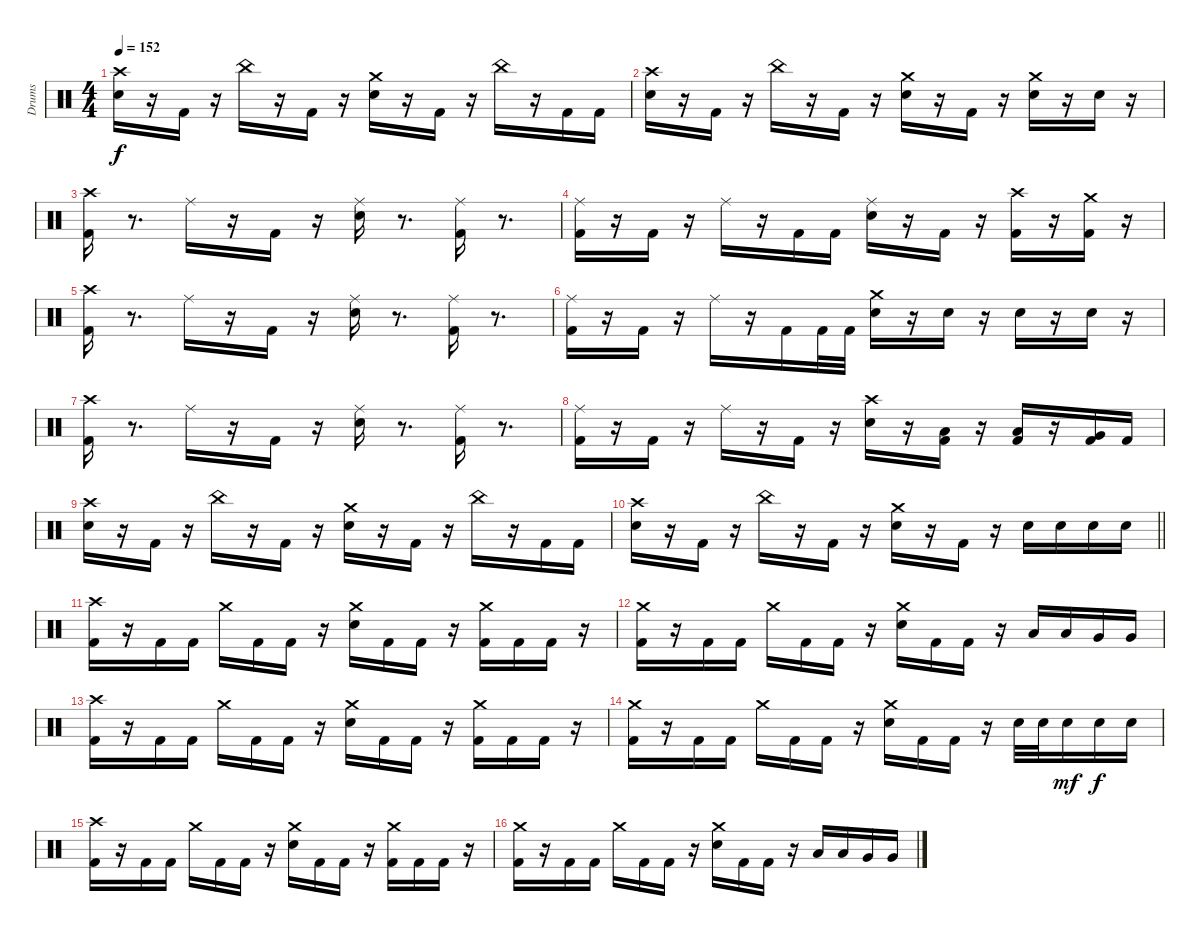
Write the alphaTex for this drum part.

\track ("Drums" "Drums") {instrument percussion}
\staff {score}
\articulation defaults
\ts (4 4)
\tempo 152
\clef neutral
\ks c
("Snare (hit) 2" "Crash high (hit)").16{dy f} r.16 "Kick (hit) 2".16 r.16 "China (hit)".16 r.16 "Kick (hit) 2".16 r.16 ("Snare (hit) 2" "Crash medium (hit)").16 r.16 "Kick (hit) 2".16 r.16 "China (hit)".16 r.16 "Kick (hit) 2".16 "Kick (hit) 2".16 |
("Snare (hit) 2" "Crash high (hit)").16 r.16 "Kick (hit) 2".16 r.16 "China (hit)".16 r.16 "Kick (hit) 2".16 r.16 ("Snare (hit) 2" "Crash medium (hit)").16 r.16 "Kick (hit) 2".16 r.16 ("Snare (hit) 2" "Crash medium (hit)").16 r.16 "Snare (hit) 2".16 r.16 |
("Kick (hit) 2" "Crash high (hit)").16 r.8{d} "Ride (middle)".16 r.16 "Kick (hit) 2".16 r.16 ("Snare (hit) 2" "Ride (middle)").16 r.8{d} ("Kick (hit) 2" "Ride (middle)").16 r.8{d} |
("Kick (hit) 2" "Ride (middle)").16 r.16 "Kick (hit) 2".16 r.16 "Ride (middle)".16 r.16 "Kick (hit) 2".16 "Kick (hit) 2".16 ("Snare (hit) 2" "Ride (middle)").16 r.16 "Kick (hit) 2".16 r.16 ("Kick (hit) 2" "Crash high (hit)").16 r.16 ("Kick (hit) 2" "Crash medium (hit)").16 r.16 |
("Kick (hit) 2" "Crash high (hit)").16 r.8{d} "Ride (middle)".16 r.16 "Kick (hit) 2".16 r.16 ("Snare (hit) 2" "Ride (middle)").16 r.8{d} ("Kick (hit) 2" "Ride (middle)").16 r.8{d} |
("Kick (hit) 2" "Ride (middle)").16 r.16 "Kick (hit) 2".16 r.16 "Ride (middle)".16 r.16 "Kick (hit) 2".16 "Kick (hit) 2".32 "Kick (hit) 2".32 ("Snare (hit) 2" "Crash medium (hit)").16 r.16 "Snare (hit) 2".16 r.16 "Snare (hit) 2".16 r.16 "Snare (hit) 2".16 r.16 |
("Kick (hit) 2" "Crash high (hit)").16 r.8{d} "Ride (middle)".16 r.16 "Kick (hit) 2".16 r.16 ("Snare (hit) 2" "Ride (middle)").16 r.8{d} ("Kick (hit) 2" "Ride (middle)").16 r.8{d} |
("Kick (hit) 2" "Ride (middle)").16 r.16 "Kick (hit) 2".16 r.16 "Ride (middle)".16 r.16 "Kick (hit) 2".16 r.16 ("Snare (hit) 2" "Crash high (hit)").16 r.16 ("Kick (hit) 2" "Low Tom (hit)").16 r.16 ("Kick (hit) 2" "Low Tom (hit)").16 r.16 ("Kick (hit) 2" "Very Low Tom (hit)").16 "Kick (hit) 2".16 |
("Snare (hit) 2" "Crash high (hit)").16 r.16 "Kick (hit) 2".16 r.16 "China (hit)".16 r.16 "Kick (hit) 2".16 r.16 ("Snare (hit) 2" "Crash medium (hit)").16 r.16 "Kick (hit) 2".16 r.16 "China (hit)".16 r.16 "Kick (hit) 2".16 "Kick (hit) 2".16 |
\barLineRight lightlight
("Snare (hit) 2" "Crash high (hit)").16 r.16 "Kick (hit) 2".16 r.16 "China (hit)".16 r.16 "Kick (hit) 2".16 r.16 ("Snare (hit) 2" "Crash medium (hit)").16 r.16 "Kick (hit) 2".16 r.16 "Snare (hit) 2".16 "Snare (hit) 2".16 "Snare (hit) 2".16 "Snare (hit) 2".16 |
\section ("" " ")
("Kick (hit) 2" "Crash high (hit)").16 r.16 "Kick (hit) 2".16 "Kick (hit) 2".16 "Crash medium (hit)".16 "Kick (hit) 2".16 "Kick (hit) 2".16 r.16 ("Snare (hit) 2" "Crash medium (hit)").16 "Kick (hit) 2".16 "Kick (hit) 2".16 r.16 ("Kick (hit) 2" "Crash medium (hit)").16 "Kick (hit) 2".16 "Kick (hit) 2".16 r.16 |
("Kick (hit) 2" "Crash medium (hit)").16 r.16 "Kick (hit) 2".16 "Kick (hit) 2".16 "Crash medium (hit)".16 "Kick (hit) 2".16 "Kick (hit) 2".16 r.16 ("Snare (hit) 2" "Crash medium (hit)").16 "Kick (hit) 2".16 "Kick (hit) 2".16 r.16 "Low Tom (hit)".16 "Low Tom (hit)".16 "Very Low Tom (hit)".16 "Very Low Tom (hit)".16 |
("Kick (hit) 2" "Crash high (hit)").16 r.16 "Kick (hit) 2".16 "Kick (hit) 2".16 "Crash medium (hit)".16 "Kick (hit) 2".16 "Kick (hit) 2".16 r.16 ("Snare (hit) 2" "Crash medium (hit)").16 "Kick (hit) 2".16 "Kick (hit) 2".16 r.16 ("Kick (hit) 2" "Crash medium (hit)").16 "Kick (hit) 2".16 "Kick (hit) 2".16 r.16 |
("Kick (hit) 2" "Crash medium (hit)").16 r.16 "Kick (hit) 2".16 "Kick (hit) 2".16 "Crash medium (hit)".16 "Kick (hit) 2".16 "Kick (hit) 2".16 r.16 ("Snare (hit) 2" "Crash medium (hit)").16 "Kick (hit) 2".16 "Kick (hit) 2".16 r.16 "Snare (hit) 2".32 "Snare (hit) 2".32 "Snare (hit) 2".16{dy mf} "Snare (hit) 2".16{dy f} "Snare (hit) 2".16 |
("Kick (hit) 2" "Crash high (hit)").16 r.16 "Kick (hit) 2".16 "Kick (hit) 2".16 "Crash medium (hit)".16 "Kick (hit) 2".16 "Kick (hit) 2".16 r.16 ("Snare (hit) 2" "Crash medium (hit)").16 "Kick (hit) 2".16 "Kick (hit) 2".16 r.16 ("Kick (hit) 2" "Crash medium (hit)").16 "Kick (hit) 2".16 "Kick (hit) 2".16 r.16 |
("Kick (hit) 2" "Crash medium (hit)").16 r.16 "Kick (hit) 2".16 "Kick (hit) 2".16 "Crash medium (hit)".16 "Kick (hit) 2".16 "Kick (hit) 2".16 r.16 ("Snare (hit) 2" "Crash medium (hit)").16 "Kick (hit) 2".16 "Kick (hit) 2".16 r.16 "Low Tom (hit)".16 "Low Tom (hit)".16 "Very Low Tom (hit)".16 "Very Low Tom (hit)".16
